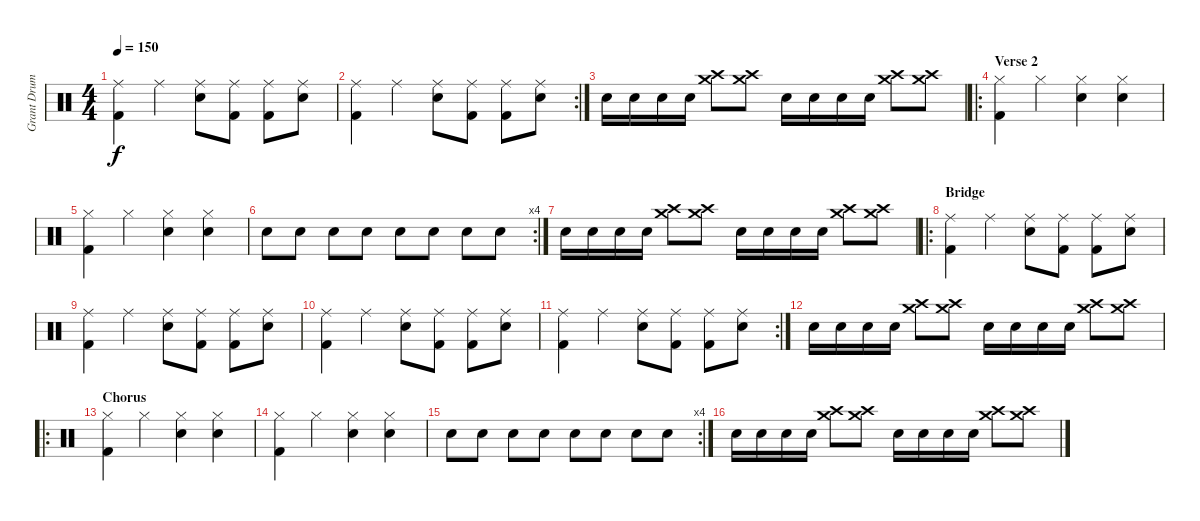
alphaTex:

\track ("Grant Drums" "Grant Drum") {instrument percussion}
\staff {score}
\articulation defaults
\ts (4 4)
\tempo 150
\clef neutral
\ks c
("Ride (middle)" "Kick (hit) 2").4{dy f} "Ride (middle)".4 ("Ride (middle)" "Snare (hit) 2").8 ("Ride (middle)" "Kick (hit) 2").8 ("Ride (middle)" "Kick (hit) 2").8 ("Ride (middle)" "Snare (hit) 2").8 |
\rc 2
("Ride (middle)" "Kick (hit) 2").4 "Ride (middle)".4 ("Ride (middle)" "Snare (hit) 2").8 ("Ride (middle)" "Kick (hit) 2").8 ("Ride (middle)" "Kick (hit) 2").8 ("Ride (middle)" "Snare (hit) 2").8 |
"Snare (hit) 2".16 "Snare (hit) 2".16 "Snare (hit) 2".16 "Snare (hit) 2".16 ("Crash medium (hit)" "Crash high (hit)").8 ("Crash medium (hit)" "Crash high (hit)").8 "Snare (hit) 2".16 "Snare (hit) 2".16 "Snare (hit) 2".16 "Snare (hit) 2".16 ("Crash medium (hit)" "Crash high (hit)").8 ("Crash medium (hit)" "Crash high (hit)").8 |
\ro
\section ("" "Verse 2")
("Hi-Hat (closed)" "Kick (hit) 2").4 "Hi-Hat (closed)".4 ("Hi-Hat (closed)" "Snare (hit) 2").4 ("Hi-Hat (closed)" "Snare (hit) 2").4 |
("Hi-Hat (closed)" "Kick (hit) 2").4 "Hi-Hat (closed)".4 ("Hi-Hat (closed)" "Snare (hit) 2").4 ("Hi-Hat (closed)" "Snare (hit) 2").4 |
\rc 4 "Snare (hit) 2".8 "Snare (hit) 2".8 "Snare (hit) 2".8 "Snare (hit) 2".8 "Snare (hit) 2".8 "Snare (hit) 2".8 "Snare (hit) 2".8 "Snare (hit) 2".8
|
"Snare (hit) 2".16 "Snare (hit) 2".16 "Snare (hit) 2".16 "Snare (hit) 2".16 ("Crash medium (hit)" "Crash high (hit)").8 ("Crash medium (hit)" "Crash high (hit)").8 "Snare (hit) 2".16 "Snare (hit) 2".16 "Snare (hit) 2".16 "Snare (hit) 2".16 ("Crash medium (hit)" "Crash high (hit)").8 ("Crash medium (hit)" "Crash high (hit)").8 |
\ro
\section ("" "Bridge")
("Ride (middle)" "Kick (hit) 2").4 "Ride (middle)".4 ("Ride (middle)" "Snare (hit) 2").8 ("Ride (middle)" "Kick (hit) 2").8 ("Ride (middle)" "Kick (hit) 2").8 ("Ride (middle)" "Snare (hit) 2").8 |
("Ride (middle)" "Kick (hit) 2").4 "Ride (middle)".4 ("Ride (middle)" "Snare (hit) 2").8 ("Ride (middle)" "Kick (hit) 2").8 ("Ride (middle)" "Kick (hit) 2").8 ("Ride (middle)" "Snare (hit) 2").8 |
("Ride (middle)" "Kick (hit) 2").4 "Ride (middle)".4 ("Ride (middle)" "Snare (hit) 2").8 ("Ride (middle)" "Kick (hit) 2").8 ("Ride (middle)" "Kick (hit) 2").8 ("Ride (middle)" "Snare (hit) 2").8 |
\rc 2
("Ride (middle)" "Kick (hit) 2").4 "Ride (middle)".4 ("Ride (middle)" "Snare (hit) 2").8 ("Ride (middle)" "Kick (hit) 2").8 ("Ride (middle)" "Kick (hit) 2").8 ("Ride (middle)" "Snare (hit) 2").8 |
"Snare (hit) 2".16 "Snare (hit) 2".16 "Snare (hit) 2".16 "Snare (hit) 2".16 ("Crash medium (hit)" "Crash high (hit)").8 ("Crash medium (hit)" "Crash high (hit)").8 "Snare (hit) 2".16 "Snare (hit) 2".16 "Snare (hit) 2".16 "Snare (hit) 2".16 ("Crash medium (hit)" "Crash high (hit)").8 ("Crash medium (hit)" "Crash high (hit)").8 |
\ro
\section ("" "Chorus")
("Hi-Hat (closed)" "Kick (hit) 2").4 "Hi-Hat (closed)".4 ("Hi-Hat (closed)" "Snare (hit) 2").4 ("Hi-Hat (closed)" "Snare (hit) 2").4 |
("Hi-Hat (closed)" "Kick (hit) 2").4 "Hi-Hat (closed)".4 ("Hi-Hat (closed)" "Snare (hit) 2").4 ("Hi-Hat (closed)" "Snare (hit) 2").4 |
\rc 4 "Snare (hit) 2".8 "Snare (hit) 2".8 "Snare (hit) 2".8 "Snare (hit) 2".8 "Snare (hit) 2".8 "Snare (hit) 2".8 "Snare (hit) 2".8 "Snare (hit) 2".8
|
"Snare (hit) 2".16 "Snare (hit) 2".16 "Snare (hit) 2".16 "Snare (hit) 2".16 ("Crash medium (hit)" "Crash high (hit)").8 ("Crash medium (hit)" "Crash high (hit)").8 "Snare (hit) 2".16 "Snare (hit) 2".16 "Snare (hit) 2".16 "Snare (hit) 2".16 ("Crash medium (hit)" "Crash high (hit)").8 ("Crash medium (hit)" "Crash high (hit)").8
